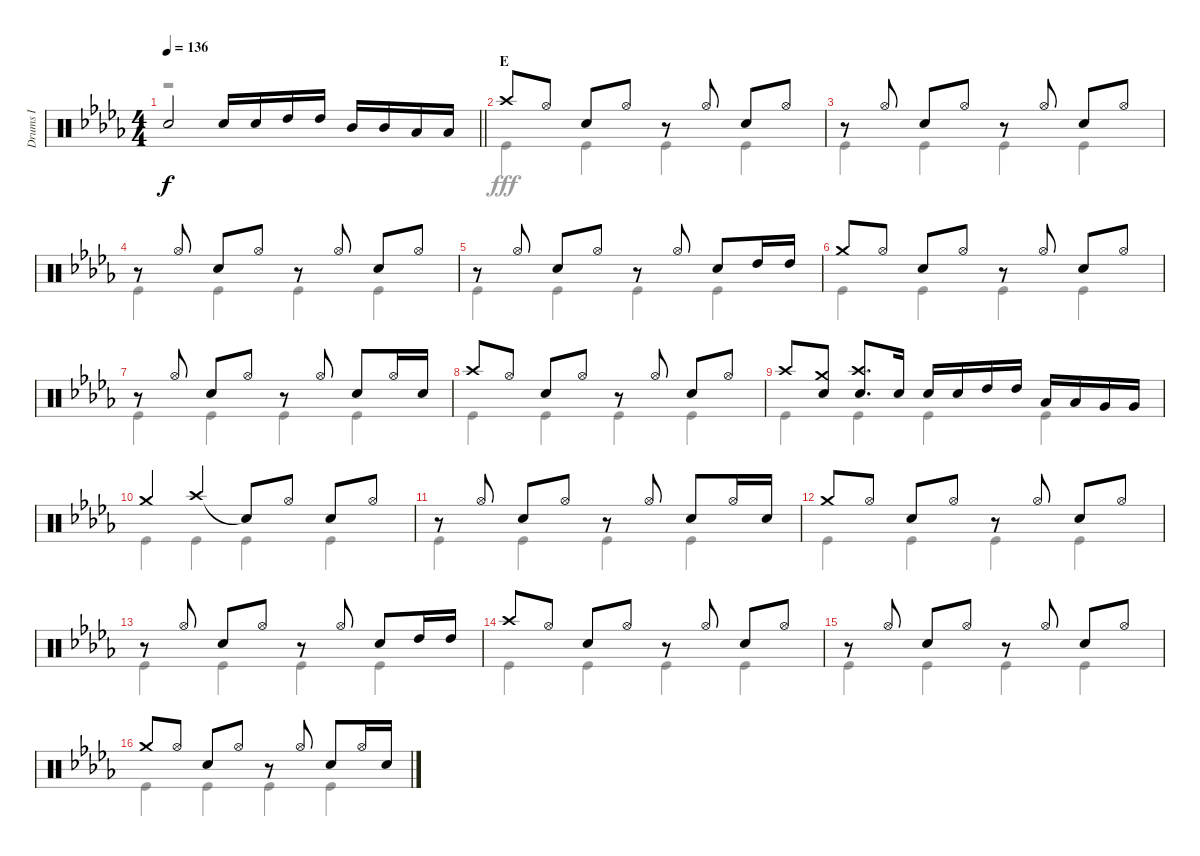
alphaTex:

\track ("Drums I" "Drums I") {instrument percussion}
\staff {score}
\articulation defaults
\voice
\ts (4 4)
\tempo 136
\clef neutral
\barLineRight lightlight
\ks db "Snare (hit)"{t}.2{dy f} "Snare (hit) 2".16 "Snare (hit) 2".16 "High Tom (hit)".16 "High Tom (hit)".16 "Mid Tom (hit)".16 "Mid Tom (hit)".16 "Low Tom (hit)".16 "Low Tom (hit)".16
|
\section ("" "E")
"Crash high (hit)".8 "Hi-Hat (open)".8 "Snare (hit) 2".8 "Hi-Hat (open)".8 r.8 "Hi-Hat (open)".8 "Snare (hit) 2".8 "Hi-Hat (open)".8 |
r.8 "Hi-Hat (open)".8 "Snare (hit) 2".8 "Hi-Hat (open)".8 r.8 "Hi-Hat (open)".8 "Snare (hit) 2".8 "Hi-Hat (open)".8 |
r.8 "Hi-Hat (open)".8 "Snare (hit) 2".8 "Hi-Hat (open)".8 r.8 "Hi-Hat (open)".8 "Snare (hit) 2".8 "Hi-Hat (open)".8 |
r.8 "Hi-Hat (open)".8 "Snare (hit) 2".8 "Hi-Hat (open)".8 r.8 "Hi-Hat (open)".8 "Snare (hit) 2".8 "High Tom (hit)".16 "High Tom (hit)".16 |
"Crash medium (hit)".8 "Hi-Hat (open)".8 "Snare (hit) 2".8 "Hi-Hat (open)".8 r.8 "Hi-Hat (open)".8 "Snare (hit) 2".8 "Hi-Hat (open)".8 |
r.8 "Hi-Hat (open)".8 "Snare (hit) 2".8 "Hi-Hat (open)".8 r.8 "Hi-Hat (open)".8 "Snare (hit) 2".8 "Hi-Hat (open)".16 "Snare (hit) 2".16 |
"Crash high (hit)".8 "Hi-Hat (open)".8 "Snare (hit) 2".8 "Hi-Hat (open)".8 r.8 "Hi-Hat (open)".8 "Snare (hit) 2".8 "Hi-Hat (open)".8 |
"Crash high (hit)".8 ("Crash medium (hit)" "Snare (hit) 2").8 ("Crash high (hit)" "Snare (hit) 2").8{d} "Snare (hit) 2".16 "Snare (hit) 2".16 "Snare (hit) 2".16 "High Tom (hit)".16 "High Tom (hit)".16 "Low Tom (hit)".16 "Low Tom (hit)".16 "Very Low Tom (hit)".16 "Very Low Tom (hit)".16 |
"Crash medium (hit)".4 "Crash high (hit)".4 "Snare (hit)"{t}.8 "Hi-Hat (open)".8 "Snare (hit) 2".8 "Hi-Hat (open)".8 |
r.8 "Hi-Hat (open)".8 "Snare (hit) 2".8 "Hi-Hat (open)".8 r.8 "Hi-Hat (open)".8 "Snare (hit) 2".8 "Hi-Hat (open)".16 "Snare (hit) 2".16 |
"Crash medium (hit)".8 "Hi-Hat (open)".8 "Snare (hit) 2".8 "Hi-Hat (open)".8 r.8 "Hi-Hat (open)".8 "Snare (hit) 2".8 "Hi-Hat (open)".8 |
r.8 "Hi-Hat (open)".8 "Snare (hit) 2".8 "Hi-Hat (open)".8 r.8 "Hi-Hat (open)".8 "Snare (hit) 2".8 "High Tom (hit)".16 "High Tom (hit)".16 |
"Crash high (hit)".8 "Hi-Hat (open)".8 "Snare (hit) 2".8 "Hi-Hat (open)".8 r.8 "Hi-Hat (open)".8 "Snare (hit) 2".8 "Hi-Hat (open)".8 |
r.8 "Hi-Hat (open)".8 "Snare (hit) 2".8 "Hi-Hat (open)".8 r.8 "Hi-Hat (open)".8 "Snare (hit) 2".8 "Hi-Hat (open)".8 |
"Crash medium (hit)".8 "Hi-Hat (open)".8 "Snare (hit) 2".8 "Hi-Hat (open)".8 r.8 "Hi-Hat (open)".8 "Snare (hit) 2".8 "Hi-Hat (open)".16 "Snare (hit) 2".16
\voice
\clef neutral
\ottava regular
\simile none
\barLineRight lightlight
\ks db
r.1{dy fff} |
"Kick (hit)".4 "Kick (hit)".4 "Kick (hit)".4 "Kick (hit)".4 |
"Kick (hit)".4 "Kick (hit)".4 "Kick (hit)".4 "Kick (hit)".4 |
"Kick (hit)".4 "Kick (hit)".4 "Kick (hit)".4 "Kick (hit)".4 |
"Kick (hit)".4 "Kick (hit)".4 "Kick (hit)".4 "Kick (hit)".4 |
"Kick (hit)".4 "Kick (hit)".4 "Kick (hit)".4 "Kick (hit)".4 |
"Kick (hit)".4 "Kick (hit)".4 "Kick (hit)".4 "Kick (hit)".4 |
"Kick (hit)".4 "Kick (hit)".4 "Kick (hit)".4 "Kick (hit)".4 |
"Kick (hit)".4 "Kick (hit)".4 "Kick (hit)".4 "Kick (hit)".4 |
"Kick (hit)".4 "Kick (hit)".4 "Kick (hit)".4 "Kick (hit)".4 |
"Kick (hit)".4 "Kick (hit)".4 "Kick (hit)".4 "Kick (hit)".4 |
"Kick (hit)".4 "Kick (hit)".4 "Kick (hit)".4 "Kick (hit)".4 |
"Kick (hit)".4 "Kick (hit)".4 "Kick (hit)".4 "Kick (hit)".4 |
"Kick (hit)".4 "Kick (hit)".4 "Kick (hit)".4 "Kick (hit)".4 |
"Kick (hit)".4 "Kick (hit)".4 "Kick (hit)".4 "Kick (hit)".4 |
"Kick (hit)".4 "Kick (hit)".4 "Kick (hit)".4 "Kick (hit)".4
